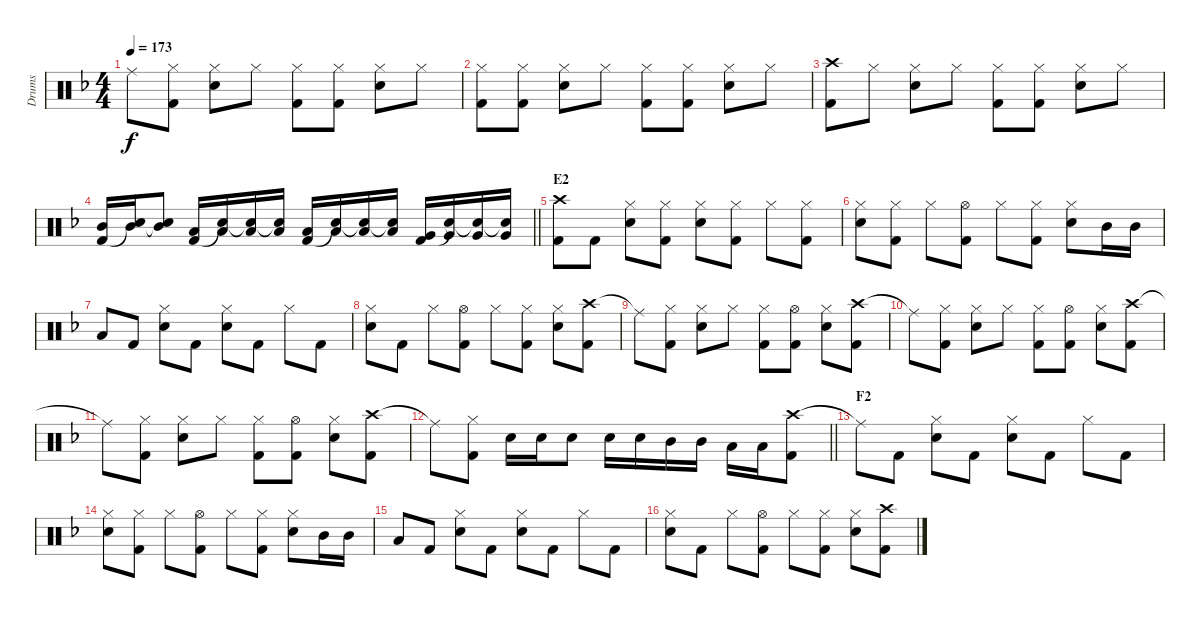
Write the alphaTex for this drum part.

\track ("Drums" "Drums") {instrument percussion}
\staff {score}
\articulation defaults
\ts (4 4)
\tempo 173
\clef neutral
\ks dminor "Ride (middle)"{t}.8{dy f}
("Hi-Hat (closed)" "Kick (hit) 2").8 ("Hi-Hat (closed)" "Snare (hit) 2").8 "Hi-Hat (closed)".8 ("Hi-Hat (closed)" "Kick (hit) 2").8 ("Hi-Hat (closed)" "Kick (hit) 2").8 ("Hi-Hat (closed)" "Snare (hit) 2").8 "Hi-Hat (closed)".8 |
("Hi-Hat (closed)" "Kick (hit) 2").8 ("Hi-Hat (closed)" "Kick (hit) 2").8 ("Hi-Hat (closed)" "Snare (hit) 2").8 "Hi-Hat (closed)".8 ("Hi-Hat (closed)" "Kick (hit) 2").8 ("Hi-Hat (closed)" "Kick (hit) 2").8 ("Hi-Hat (closed)" "Snare (hit) 2").8 "Hi-Hat (closed)".8 |
("Crash high (hit)" "Kick (hit) 2").8 "Hi-Hat (closed)".8 ("Hi-Hat (closed)" "Snare (hit) 2").8 "Hi-Hat (closed)".8 ("Hi-Hat (closed)" "Kick (hit) 2").8 ("Hi-Hat (closed)" "Kick (hit) 2").8 ("Hi-Hat (closed)" "Snare (hit) 2").8 "Hi-Hat (closed)".8 |
\barLineRight lightlight
("Mid Tom (hit)" "Kick (hit) 2").16 ("Mid Tom (hit)" "Snare (hit)"{t}).16 ("Mid Tom (hit)" "Snare (hit)"{t}).8 ("Low Tom (hit)" "Kick (hit) 2").16 ("Low Tom (hit)" "Snare (hit)"{t}).16 ("Low Tom (hit)" "Snare (hit)"{t}).16 ("Low Tom (hit)" "Snare (hit)"{t}).16 ("Low Tom (hit)" "Kick (hit) 2").16 ("Low Tom (hit)" "Snare (hit)"{t}).16 ("Low Tom (hit)" "Snare (hit)"{t}).16 ("Low Tom (hit)" "Snare (hit)"{t}).16 ("Very Low Tom (hit)" "Kick (hit) 2").16 ("Very Low Tom (hit)" "Snare (hit)"{t}).16 ("Very Low Tom (hit)" "Snare (hit)"{t}).16 ("Very Low Tom (hit)" "Snare (hit)"{t}).16 |
\section ("" "E2")
("Crash high (hit)" "Kick (hit) 2").8 "Kick (hit) 2".8 ("Hi-Hat (closed)" "Snare (hit) 2").8 ("Hi-Hat (closed)" "Kick (hit) 2").8 ("Hi-Hat (closed)" "Snare (hit) 2").8 ("Hi-Hat (closed)" "Kick (hit) 2").8 "Hi-Hat (closed)".8 ("Hi-Hat (closed)" "Kick (hit) 2").8 |
("Hi-Hat (closed)" "Snare (hit) 2").8 ("Hi-Hat (closed)" "Kick (hit) 2").8 "Hi-Hat (closed)".8 ("Hi-Hat (open)" "Kick (hit) 2").8 "Hi-Hat (closed)".8 ("Hi-Hat (closed)" "Kick (hit) 2").8 ("Hi-Hat (closed)" "Snare (hit) 2").8 "Mid Tom (hit)".16 "Mid Tom (hit)".16 |
"Low Tom (hit)".8 "Kick (hit) 2".8 ("Hi-Hat (closed)" "Snare (hit) 2").8 "Kick (hit) 2".8 ("Hi-Hat (closed)" "Snare (hit) 2").8 "Kick (hit) 2".8 "Hi-Hat (closed)".8 "Kick (hit) 2".8 |
("Hi-Hat (closed)" "Snare (hit) 2").8 "Kick (hit) 2".8 "Hi-Hat (closed)".8 ("Hi-Hat (open)" "Kick (hit) 2").8 "Hi-Hat (closed)".8 ("Hi-Hat (closed)" "Kick (hit) 2").8 ("Hi-Hat (closed)" "Snare (hit) 2").8 ("Crash high (hit)" "Kick (hit) 2").8 |
"Ride (middle)"{t}.8 ("Hi-Hat (closed)" "Kick (hit) 2").8 ("Hi-Hat (closed)" "Snare (hit) 2").8 "Hi-Hat (closed)".8 ("Hi-Hat (closed)" "Kick (hit) 2").8 ("Hi-Hat (open)" "Kick (hit) 2").8 ("Hi-Hat (closed)" "Snare (hit) 2").8 ("Crash high (hit)" "Kick (hit) 2").8 |
"Ride (middle)"{t}.8 ("Hi-Hat (closed)" "Kick (hit) 2").8 ("Hi-Hat (closed)" "Snare (hit) 2").8 "Hi-Hat (closed)".8 ("Hi-Hat (closed)" "Kick (hit) 2").8 ("Hi-Hat (open)" "Kick (hit) 2").8 ("Hi-Hat (closed)" "Snare (hit) 2").8 ("Crash high (hit)" "Kick (hit) 2").8 |
"Ride (middle)"{t}.8 ("Hi-Hat (closed)" "Kick (hit) 2").8 ("Hi-Hat (closed)" "Snare (hit) 2").8 "Hi-Hat (closed)".8 ("Hi-Hat (closed)" "Kick (hit) 2").8 ("Hi-Hat (open)" "Kick (hit) 2").8 ("Hi-Hat (closed)" "Snare (hit) 2").8 ("Crash high (hit)" "Kick (hit) 2").8 |
\barLineRight lightlight "Ride (middle)"{t}.8
("Hi-Hat (closed)" "Kick (hit) 2").8 "Snare (hit) 2".16 "Snare (hit) 2".16 "Snare (hit) 2".8 "Snare (hit) 2".16 "Snare (hit) 2".16 "Mid Tom (hit)".16 "Mid Tom (hit)".16 "Low Tom (hit)".16 "Low Tom (hit)".16 ("Crash high (hit)" "Kick (hit) 2").8 |
\section ("" "F2")
"Ride (middle)"{t}.8 "Kick (hit) 2".8 ("Hi-Hat (closed)" "Snare (hit) 2").8 "Kick (hit) 2".8 ("Hi-Hat (closed)" "Snare (hit) 2").8 "Kick (hit) 2".8 "Hi-Hat (closed)".8 "Kick (hit) 2".8 |
("Hi-Hat (closed)" "Snare (hit) 2").8 ("Hi-Hat (closed)" "Kick (hit) 2").8 "Hi-Hat (closed)".8 ("Hi-Hat (open)" "Kick (hit) 2").8 "Hi-Hat (closed)".8 ("Hi-Hat (closed)" "Kick (hit) 2").8 ("Hi-Hat (closed)" "Snare (hit) 2").8 "Mid Tom (hit)".16 "Mid Tom (hit)".16 |
"Low Tom (hit)".8 "Kick (hit) 2".8 ("Hi-Hat (closed)" "Snare (hit) 2").8 "Kick (hit) 2".8 ("Hi-Hat (closed)" "Snare (hit) 2").8 "Kick (hit) 2".8 "Hi-Hat (closed)".8 "Kick (hit) 2".8 |
("Hi-Hat (closed)" "Snare (hit) 2").8 "Kick (hit) 2".8 "Hi-Hat (closed)".8 ("Hi-Hat (open)" "Kick (hit) 2").8 "Hi-Hat (closed)".8 ("Hi-Hat (closed)" "Kick (hit) 2").8 ("Hi-Hat (closed)" "Snare (hit) 2").8 ("Crash high (hit)" "Kick (hit) 2").8
